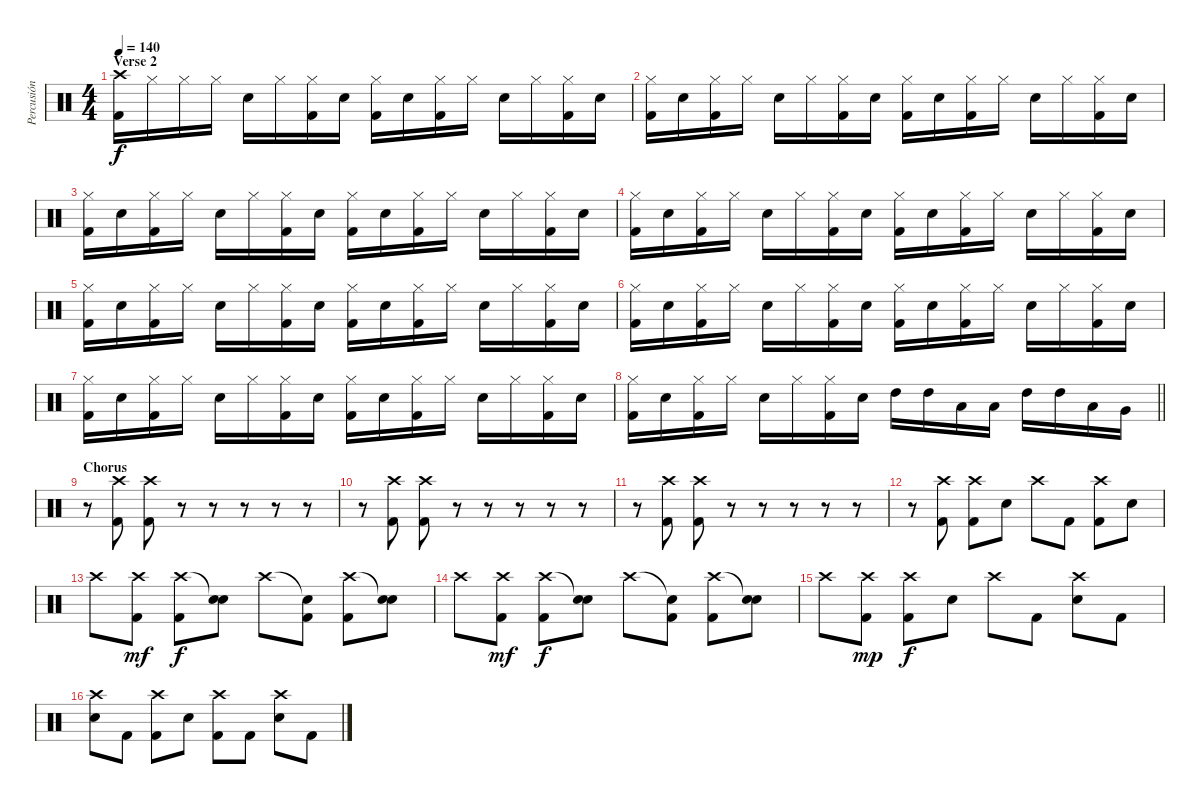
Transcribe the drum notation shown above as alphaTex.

\track ("Percusión" "Percusión") {instrument percussion}
\staff {score}
\articulation defaults
\ts (4 4)
\section ("" "Verse 2")
\tempo 140
\clef neutral
\ks c
("Crash high (hit)" "Kick (hit) 2").16{dy f} "Hi-Hat (closed)".16 "Hi-Hat (closed)".16 "Hi-Hat (closed)".16 "Electric Snare (hit)".16 "Hi-Hat (closed)".16 ("Hi-Hat (closed)" "Kick (hit) 2").16 "Electric Snare (hit)".16 ("Hi-Hat (closed)" "Kick (hit) 2").16 "Electric Snare (hit)".16 ("Hi-Hat (closed)" "Kick (hit) 2").16 "Hi-Hat (closed)".16 "Electric Snare (hit)".16 "Hi-Hat (closed)".16 ("Hi-Hat (closed)" "Kick (hit) 2").16 "Electric Snare (hit)".16 |
("Hi-Hat (closed)" "Kick (hit) 2").16 "Electric Snare (hit)".16 ("Hi-Hat (closed)" "Kick (hit) 2").16 "Hi-Hat (closed)".16 "Electric Snare (hit)".16 "Hi-Hat (closed)".16 ("Hi-Hat (closed)" "Kick (hit) 2").16 "Electric Snare (hit)".16 ("Hi-Hat (closed)" "Kick (hit) 2").16 "Electric Snare (hit)".16 ("Hi-Hat (closed)" "Kick (hit) 2").16 "Hi-Hat (closed)".16 "Electric Snare (hit)".16 "Hi-Hat (closed)".16 ("Hi-Hat (closed)" "Kick (hit) 2").16 "Electric Snare (hit)".16 |
("Hi-Hat (closed)" "Kick (hit) 2").16 "Electric Snare (hit)".16 ("Hi-Hat (closed)" "Kick (hit) 2").16 "Hi-Hat (closed)".16 "Electric Snare (hit)".16 "Hi-Hat (closed)".16 ("Hi-Hat (closed)" "Kick (hit) 2").16 "Electric Snare (hit)".16 ("Hi-Hat (closed)" "Kick (hit) 2").16 "Electric Snare (hit)".16 ("Hi-Hat (closed)" "Kick (hit) 2").16 "Hi-Hat (closed)".16 "Electric Snare (hit)".16 "Hi-Hat (closed)".16 ("Hi-Hat (closed)" "Kick (hit) 2").16 "Electric Snare (hit)".16 |
("Hi-Hat (closed)" "Kick (hit) 2").16 "Electric Snare (hit)".16 ("Hi-Hat (closed)" "Kick (hit) 2").16 "Hi-Hat (closed)".16 "Electric Snare (hit)".16 "Hi-Hat (closed)".16 ("Hi-Hat (closed)" "Kick (hit) 2").16 "Electric Snare (hit)".16 ("Hi-Hat (closed)" "Kick (hit) 2").16 "Electric Snare (hit)".16 ("Hi-Hat (closed)" "Kick (hit) 2").16 "Hi-Hat (closed)".16 "Electric Snare (hit)".16 "Hi-Hat (closed)".16 ("Hi-Hat (closed)" "Kick (hit) 2").16 "Electric Snare (hit)".16 |
("Hi-Hat (closed)" "Kick (hit) 2").16 "Electric Snare (hit)".16 ("Hi-Hat (closed)" "Kick (hit) 2").16 "Hi-Hat (closed)".16 "Electric Snare (hit)".16 "Hi-Hat (closed)".16 ("Hi-Hat (closed)" "Kick (hit) 2").16 "Electric Snare (hit)".16 ("Hi-Hat (closed)" "Kick (hit) 2").16 "Electric Snare (hit)".16 ("Hi-Hat (closed)" "Kick (hit) 2").16 "Hi-Hat (closed)".16 "Electric Snare (hit)".16 "Hi-Hat (closed)".16 ("Hi-Hat (closed)" "Kick (hit) 2").16 "Electric Snare (hit)".16 |
("Hi-Hat (closed)" "Kick (hit) 2").16 "Electric Snare (hit)".16 ("Hi-Hat (closed)" "Kick (hit) 2").16 "Hi-Hat (closed)".16 "Electric Snare (hit)".16 "Hi-Hat (closed)".16 ("Hi-Hat (closed)" "Kick (hit) 2").16 "Electric Snare (hit)".16 ("Hi-Hat (closed)" "Kick (hit) 2").16 "Electric Snare (hit)".16 ("Hi-Hat (closed)" "Kick (hit) 2").16 "Hi-Hat (closed)".16 "Electric Snare (hit)".16 "Hi-Hat (closed)".16 ("Hi-Hat (closed)" "Kick (hit) 2").16 "Electric Snare (hit)".16 |
("Hi-Hat (closed)" "Kick (hit) 2").16 "Electric Snare (hit)".16 ("Hi-Hat (closed)" "Kick (hit) 2").16 "Hi-Hat (closed)".16 "Electric Snare (hit)".16 "Hi-Hat (closed)".16 ("Hi-Hat (closed)" "Kick (hit) 2").16 "Electric Snare (hit)".16 ("Hi-Hat (closed)" "Kick (hit) 2").16 "Electric Snare (hit)".16 ("Hi-Hat (closed)" "Kick (hit) 2").16 "Hi-Hat (closed)".16 "Electric Snare (hit)".16 "Hi-Hat (closed)".16 ("Hi-Hat (closed)" "Kick (hit) 2").16 "Electric Snare (hit)".16 |
\barLineRight lightlight
("Hi-Hat (closed)" "Kick (hit) 2").16 "Electric Snare (hit)".16 ("Hi-Hat (closed)" "Kick (hit) 2").16 "Hi-Hat (closed)".16 "Electric Snare (hit)".16 "Hi-Hat (closed)".16 ("Hi-Hat (closed)" "Kick (hit) 2").16 "Electric Snare (hit)".16 "High Tom (hit)".16 "High Tom (hit)".16 "Low Tom (hit)".16 "Low Tom (hit)".16 "High Tom (hit)".16 "High Tom (hit)".16 "Low Tom (hit)".16 "Very Low Tom (hit)".16 |
\section ("" "Chorus")
r.8 ("Crash high (hit)" "Kick (hit) 2").8 ("Crash high (hit)" "Kick (hit) 2").8 r.8 r.8 r.8 r.8 r.8 |
r.8 ("Crash high (hit)" "Kick (hit) 2").8 ("Crash high (hit)" "Kick (hit) 2").8 r.8 r.8 r.8 r.8 r.8 |
r.8 ("Crash high (hit)" "Kick (hit) 2").8 ("Crash high (hit)" "Kick (hit) 2").8 r.8 r.8 r.8 r.8 r.8 |
r.8 ("Crash high (hit)" "Kick (hit) 2").8 ("Crash high (hit)" "Kick (hit) 2").8 "Electric Snare (hit)".8 "Crash high (hit)".8 "Kick (hit) 2".8 ("Crash high (hit)" "Kick (hit) 2").8 "Electric Snare (hit)".8 |
"Crash high (hit)".8 ("Crash high (hit)" "Kick (hit) 2").8{dy mf} ("Crash high (hit)" "Kick (hit) 2").8{dy f} ("Snare (hit)"{t} "Electric Snare (hit)").8 "Crash high (hit)".8 ("Snare (hit)"{t} "Kick (hit) 2").8 ("Crash high (hit)" "Kick (hit) 2").8 ("Snare (hit)"{t} "Electric Snare (hit)").8 |
"Crash high (hit)".8 ("Crash high (hit)" "Kick (hit) 2").8{dy mf} ("Crash high (hit)" "Kick (hit) 2").8{dy f} ("Snare (hit)"{t} "Electric Snare (hit)").8 "Crash high (hit)".8 ("Snare (hit)"{t} "Kick (hit) 2").8 ("Crash high (hit)" "Kick (hit) 2").8 ("Snare (hit)"{t} "Electric Snare (hit)").8 |
"Crash high (hit)".8 ("Crash high (hit)" "Kick (hit) 2").8{dy mp} ("Crash high (hit)" "Kick (hit) 2").8{dy f} "Electric Snare (hit)".8 "Crash high (hit)".8 "Kick (hit) 2".8 ("Crash high (hit)" "Electric Snare (hit)").8 "Kick (hit) 2".8 |
("Crash high (hit)" "Electric Snare (hit)").8 "Kick (hit) 2".8 ("Crash high (hit)" "Kick (hit) 2").8 "Electric Snare (hit)".8 ("Crash high (hit)" "Kick (hit) 2").8 "Kick (hit) 2".8 ("Crash high (hit)" "Electric Snare (hit)").8 "Kick (hit) 2".8
